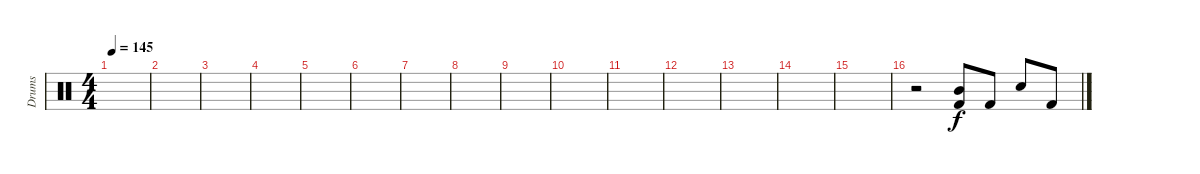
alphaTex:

\track ("Drums" "Drums") {instrument percussion}
\staff {score}
\articulation defaults
\ts (4 4)
\tempo 145
\clef neutral
\ks c
|
|
|
|
|
|
|
|
|
|
|
|
|
|
|
r.2 ("Mid Tom (hit)" "Kick (hit) 2").8 "Kick (hit) 2".8{dy f} "Electric Snare (hit)".8 "Kick (hit) 2".8
